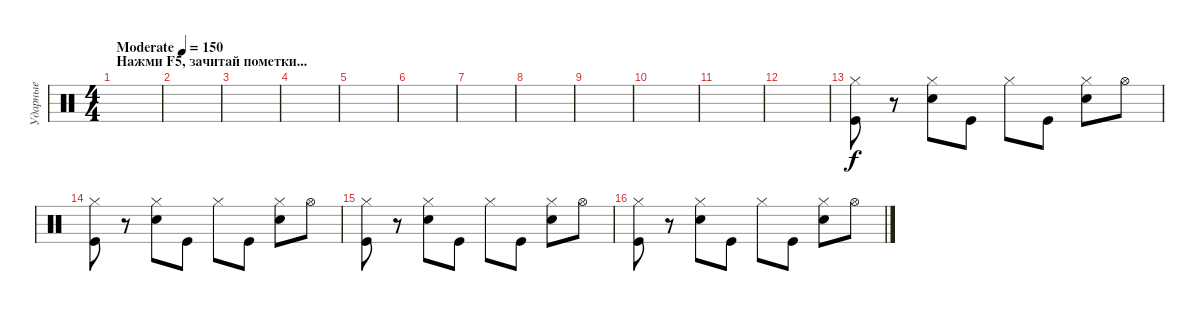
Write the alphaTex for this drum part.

\track ("Ударные" "Ударные") {instrument percussion}
\staff {score}
\articulation defaults
\ts (4 4)
\section ("" "Нажми F5, зачитай пометки...")
\tempo (150 "Moderate")
\clef neutral
\ks c
|
|
|
|
|
|
|
|
|
|
|
|
("Kick (hit)" "Hi-Hat (closed)").8 r.8 ("Hand Clap (hit)" "Hi-Hat (closed)").8 "Kick (hit)".8 "Hi-Hat (closed)".8 "Kick (hit)".8 ("Hand Clap (hit)" "Hi-Hat (closed)").8 "Hi-Hat (open)".8 |
("Kick (hit)" "Hi-Hat (closed)").8 r.8 ("Hand Clap (hit)" "Hi-Hat (closed)").8 "Kick (hit)".8 "Hi-Hat (closed)".8 "Kick (hit)".8 ("Hand Clap (hit)" "Hi-Hat (closed)").8 "Hi-Hat (open)".8 |
("Kick (hit)" "Hi-Hat (closed)").8 r.8 ("Hand Clap (hit)" "Hi-Hat (closed)").8 "Kick (hit)".8 "Hi-Hat (closed)".8 "Kick (hit)".8 ("Hand Clap (hit)" "Hi-Hat (closed)").8 "Hi-Hat (open)".8 |
("Kick (hit)" "Hi-Hat (closed)").8 r.8 ("Hand Clap (hit)" "Hi-Hat (closed)").8 "Kick (hit)".8 "Hi-Hat (closed)".8 "Kick (hit)".8 ("Hand Clap (hit)" "Hi-Hat (closed)").8 "Hi-Hat (open)".8
